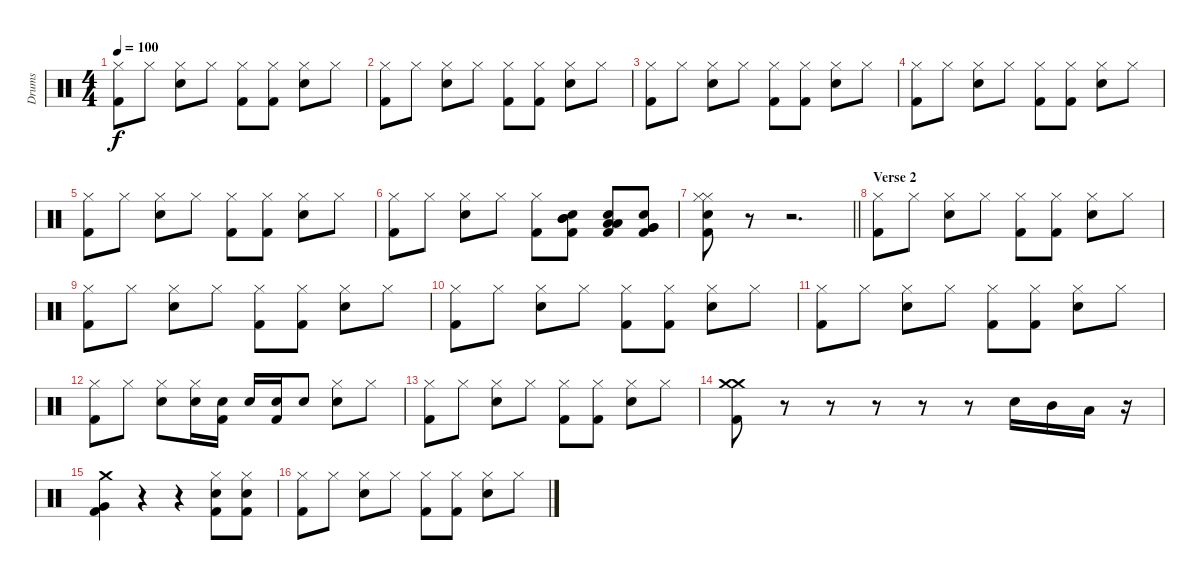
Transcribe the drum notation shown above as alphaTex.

\track ("Drums" "Drums") {instrument percussion}
\staff {score}
\articulation defaults
\ts (4 4)
\tempo 100
\clef neutral
\ks c
("Hi-Hat (closed)" "Kick (hit) 2").8{dy f} "Hi-Hat (closed)".8 ("Hi-Hat (closed)" "Electric Snare (hit)").8 "Hi-Hat (closed)".8 ("Hi-Hat (closed)" "Kick (hit) 2").8 ("Hi-Hat (closed)" "Kick (hit) 2").8 ("Hi-Hat (closed)" "Electric Snare (hit)").8 "Hi-Hat (closed)".8 |
("Hi-Hat (closed)" "Kick (hit) 2").8 "Hi-Hat (closed)".8 ("Hi-Hat (closed)" "Electric Snare (hit)").8 "Hi-Hat (closed)".8 ("Hi-Hat (closed)" "Kick (hit) 2").8 ("Hi-Hat (closed)" "Kick (hit) 2").8 ("Hi-Hat (closed)" "Electric Snare (hit)").8 "Hi-Hat (closed)".8 |
("Hi-Hat (closed)" "Kick (hit) 2").8 "Hi-Hat (closed)".8 ("Hi-Hat (closed)" "Electric Snare (hit)").8 "Hi-Hat (closed)".8 ("Hi-Hat (closed)" "Kick (hit) 2").8 ("Hi-Hat (closed)" "Kick (hit) 2").8 ("Hi-Hat (closed)" "Electric Snare (hit)").8 "Hi-Hat (closed)".8 |
("Hi-Hat (closed)" "Kick (hit) 2").8 "Hi-Hat (closed)".8 ("Hi-Hat (closed)" "Electric Snare (hit)").8 "Hi-Hat (closed)".8 ("Hi-Hat (closed)" "Kick (hit) 2").8 ("Hi-Hat (closed)" "Kick (hit) 2").8 ("Hi-Hat (closed)" "Electric Snare (hit)").8 "Hi-Hat (closed)".8 |
("Hi-Hat (closed)" "Kick (hit) 2").8 "Hi-Hat (closed)".8 ("Hi-Hat (closed)" "Electric Snare (hit)").8 "Hi-Hat (closed)".8 ("Hi-Hat (closed)" "Kick (hit) 2").8 ("Hi-Hat (closed)" "Kick (hit) 2").8 ("Hi-Hat (closed)" "Electric Snare (hit)").8 "Hi-Hat (closed)".8 |
("Hi-Hat (closed)" "Kick (hit) 2").8 "Hi-Hat (closed)".8 ("Hi-Hat (closed)" "Electric Snare (hit)").8 "Hi-Hat (closed)".8 ("Hi-Hat (closed)" "Kick (hit) 2").8 ("Mid Tom (hit)" "Mid Tom (hit)" "Electric Snare (hit)" "Kick (hit) 2").8 ("Low Tom (hit)" "Low Tom (hit)" "Electric Snare (hit)" "Kick (hit) 2").8 ("Electric Snare (hit)" "Very Low Tom (hit)" "Very Low Tom (hit)" "Kick (hit) 2").8 |
\barLineRight lightlight
("Hi-Hat (closed)" "Hi-Hat (closed)" "Electric Snare (hit)" "Kick (hit) 2").8 r.8 r.2{d} |
\section ("" "Verse 2")
("Hi-Hat (closed)" "Kick (hit) 2").8 "Hi-Hat (closed)".8 ("Hi-Hat (closed)" "Electric Snare (hit)").8 "Hi-Hat (closed)".8 ("Hi-Hat (closed)" "Kick (hit) 2").8 ("Hi-Hat (closed)" "Kick (hit) 2").8 ("Hi-Hat (closed)" "Electric Snare (hit)").8 "Hi-Hat (closed)".8 |
("Hi-Hat (closed)" "Kick (hit) 2").8 "Hi-Hat (closed)".8 ("Hi-Hat (closed)" "Electric Snare (hit)").8 "Hi-Hat (closed)".8 ("Hi-Hat (closed)" "Kick (hit) 2").8 ("Hi-Hat (closed)" "Kick (hit) 2").8 ("Hi-Hat (closed)" "Electric Snare (hit)").8 "Hi-Hat (closed)".8 |
("Hi-Hat (closed)" "Kick (hit) 2").8 "Hi-Hat (closed)".8 ("Hi-Hat (closed)" "Electric Snare (hit)").8 "Hi-Hat (closed)".8 ("Hi-Hat (closed)" "Kick (hit) 2").8 ("Hi-Hat (closed)" "Kick (hit) 2").8 ("Hi-Hat (closed)" "Electric Snare (hit)").8 "Hi-Hat (closed)".8 |
("Hi-Hat (closed)" "Kick (hit) 2").8 "Hi-Hat (closed)".8 ("Hi-Hat (closed)" "Electric Snare (hit)").8 "Hi-Hat (closed)".8 ("Hi-Hat (closed)" "Kick (hit) 2").8 ("Hi-Hat (closed)" "Kick (hit) 2").8 ("Hi-Hat (closed)" "Electric Snare (hit)").8 "Hi-Hat (closed)".8 |
("Hi-Hat (closed)" "Kick (hit) 2").8 "Hi-Hat (closed)".8 ("Hi-Hat (closed)" "Electric Snare (hit)").8 ("Hi-Hat (closed)" "Electric Snare (hit)").16 ("Electric Snare (hit)" "Kick (hit) 2").16 "Electric Snare (hit)".16 ("Electric Snare (hit)" "Kick (hit) 2").16 "Electric Snare (hit)".8 ("Hi-Hat (closed)" "Electric Snare (hit)").8 "Hi-Hat (closed)".8 |
("Hi-Hat (closed)" "Kick (hit) 2").8 "Hi-Hat (closed)".8 ("Hi-Hat (closed)" "Electric Snare (hit)").8 "Hi-Hat (closed)".8 ("Hi-Hat (closed)" "Kick (hit) 2").8 ("Hi-Hat (closed)" "Kick (hit) 2").8 ("Hi-Hat (closed)" "Electric Snare (hit)").8 "Hi-Hat (closed)".8 |
("Crash medium (hit)" "Crash medium (hit)" "Kick (hit) 2").8 r.8 r.8 r.8 r.8 r.8 "Electric Snare (hit)".16 "Mid Tom (hit)".16 "Low Tom (hit)".16 r.16 |
("Crash medium (hit)" "Very Low Tom (hit)" "Kick (hit) 2").4 r.4 r.4 ("Hi-Hat (closed)" "Electric Snare (hit)" "Kick (hit) 2").8 ("Hi-Hat (closed)" "Electric Snare (hit)" "Kick (hit) 2").8 |
("Hi-Hat (closed)" "Kick (hit) 2").8 "Hi-Hat (closed)".8 ("Hi-Hat (closed)" "Electric Snare (hit)").8 "Hi-Hat (closed)".8 ("Hi-Hat (closed)" "Kick (hit) 2").8 ("Hi-Hat (closed)" "Kick (hit) 2").8 ("Hi-Hat (closed)" "Electric Snare (hit)").8 "Hi-Hat (closed)".8
